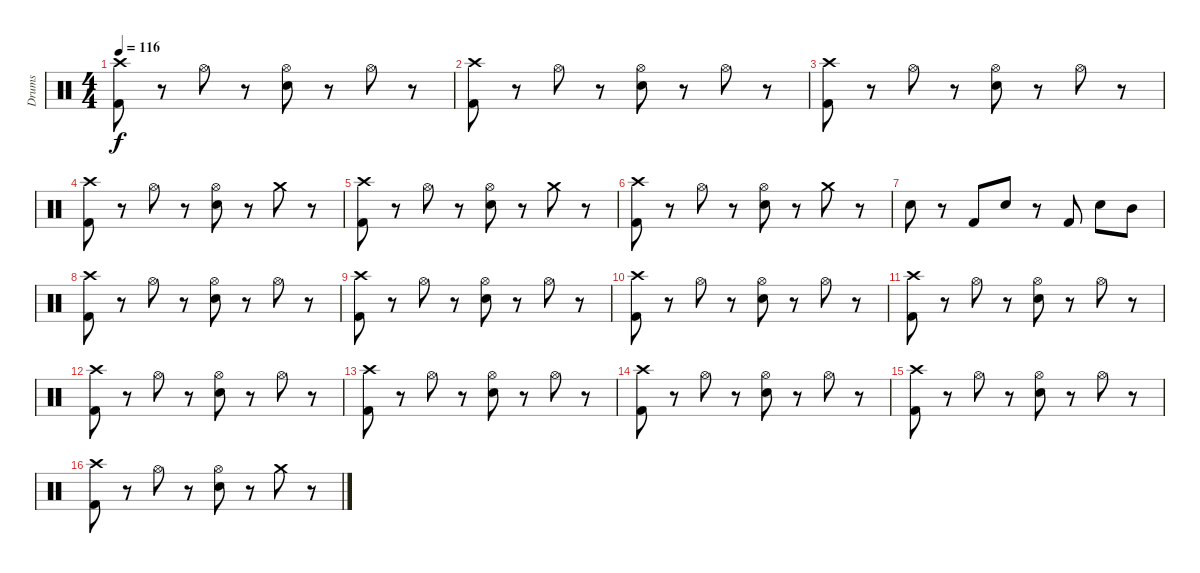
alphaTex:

\track ("Drums" "Drums") {instrument percussion}
\staff {score}
\articulation defaults
\ts (4 4)
\tempo 116
\clef neutral
\ks c
("Crash high (hit)" "Kick (hit) 2").8{dy f} r.8 "Hi-Hat (open)".8 r.8 ("Snare (hit) 2" "Hi-Hat (open)").8 r.8 "Hi-Hat (open)".8 r.8 |
("Crash high (hit)" "Kick (hit) 2").8 r.8 "Hi-Hat (open)".8 r.8 ("Snare (hit) 2" "Hi-Hat (open)").8 r.8 "Hi-Hat (open)".8 r.8 |
("Crash high (hit)" "Kick (hit) 2").8 r.8 "Hi-Hat (open)".8 r.8 ("Snare (hit) 2" "Hi-Hat (open)").8 r.8 "Hi-Hat (open)".8 r.8 |
("Crash high (hit)" "Kick (hit) 2").8 r.8 "Hi-Hat (open)".8 r.8 ("Snare (hit) 2" "Hi-Hat (open)").8 r.8 "Crash medium (hit)".8 r.8 |
("Crash high (hit)" "Kick (hit) 2").8 r.8 "Hi-Hat (open)".8 r.8 ("Snare (hit) 2" "Hi-Hat (open)").8 r.8 "Crash medium (hit)".8 r.8 |
("Crash high (hit)" "Kick (hit) 2").8 r.8 "Hi-Hat (open)".8 r.8 ("Snare (hit) 2" "Hi-Hat (open)").8 r.8 "Crash medium (hit)".8 r.8 |
"Snare (hit) 2".8 r.8 "Kick (hit) 2".8 "Snare (hit) 2".8 r.8 "Kick (hit) 2".8 "Snare (hit) 2".8 "Mid Tom (hit)".8 |
("Crash high (hit)" "Kick (hit) 2").8 r.8 "Hi-Hat (open)".8 r.8 ("Snare (hit) 2" "Hi-Hat (open)").8 r.8 "Hi-Hat (open)".8 r.8 |
("Crash high (hit)" "Kick (hit) 2").8 r.8 "Hi-Hat (open)".8 r.8 ("Snare (hit) 2" "Hi-Hat (open)").8 r.8 "Hi-Hat (open)".8 r.8 |
("Crash high (hit)" "Kick (hit) 2").8 r.8 "Hi-Hat (open)".8 r.8 ("Snare (hit) 2" "Hi-Hat (open)").8 r.8 "Hi-Hat (open)".8 r.8 |
("Crash high (hit)" "Kick (hit) 2").8 r.8 "Hi-Hat (open)".8 r.8 ("Snare (hit) 2" "Hi-Hat (open)").8 r.8 "Hi-Hat (open)".8 r.8 |
("Crash high (hit)" "Kick (hit) 2").8 r.8 "Hi-Hat (open)".8 r.8 ("Snare (hit) 2" "Hi-Hat (open)").8 r.8 "Hi-Hat (open)".8 r.8 |
("Crash high (hit)" "Kick (hit) 2").8 r.8 "Hi-Hat (open)".8 r.8 ("Snare (hit) 2" "Hi-Hat (open)").8 r.8 "Hi-Hat (open)".8 r.8 |
("Crash high (hit)" "Kick (hit) 2").8 r.8 "Hi-Hat (open)".8 r.8 ("Snare (hit) 2" "Hi-Hat (open)").8 r.8 "Hi-Hat (open)".8 r.8 |
("Crash high (hit)" "Kick (hit) 2").8 r.8 "Hi-Hat (open)".8 r.8 ("Snare (hit) 2" "Hi-Hat (open)").8 r.8 "Hi-Hat (open)".8 r.8 |
("Crash high (hit)" "Kick (hit) 2").8 r.8 "Hi-Hat (open)".8 r.8 ("Snare (hit) 2" "Hi-Hat (open)").8 r.8 "Crash medium (hit)".8 r.8
